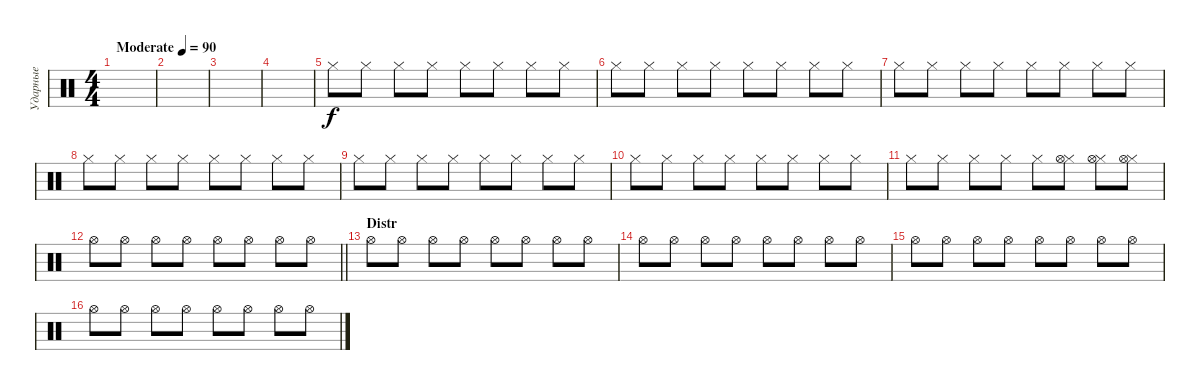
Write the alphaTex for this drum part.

\track ("Ударные" "Ударные") {instrument percussion}
\staff {score}
\articulation defaults
\ts (4 4)
\tempo (90 "Moderate")
\clef neutral
\ks c
|
|
|
|
"Hi-Hat (closed)".8 "Hi-Hat (closed)".8 "Hi-Hat (closed)".8 "Hi-Hat (closed)".8 "Hi-Hat (closed)".8 "Hi-Hat (closed)".8 "Hi-Hat (closed)".8 "Hi-Hat (closed)".8 |
"Hi-Hat (closed)".8 "Hi-Hat (closed)".8 "Hi-Hat (closed)".8 "Hi-Hat (closed)".8 "Hi-Hat (closed)".8 "Hi-Hat (closed)".8 "Hi-Hat (closed)".8 "Hi-Hat (closed)".8 |
"Hi-Hat (closed)".8 "Hi-Hat (closed)".8 "Hi-Hat (closed)".8 "Hi-Hat (closed)".8 "Hi-Hat (closed)".8 "Hi-Hat (closed)".8 "Hi-Hat (closed)".8 "Hi-Hat (closed)".8 |
"Hi-Hat (closed)".8 "Hi-Hat (closed)".8 "Hi-Hat (closed)".8 "Hi-Hat (closed)".8 "Hi-Hat (closed)".8 "Hi-Hat (closed)".8 "Hi-Hat (closed)".8 "Hi-Hat (closed)".8 |
"Hi-Hat (closed)".8 "Hi-Hat (closed)".8 "Hi-Hat (closed)".8 "Hi-Hat (closed)".8 "Hi-Hat (closed)".8 "Hi-Hat (closed)".8 "Hi-Hat (closed)".8 "Hi-Hat (closed)".8 |
"Hi-Hat (closed)".8 "Hi-Hat (closed)".8 "Hi-Hat (closed)".8 "Hi-Hat (closed)".8 "Hi-Hat (closed)".8 "Hi-Hat (closed)".8 "Hi-Hat (closed)".8 "Hi-Hat (closed)".8 |
"Hi-Hat (closed)".8 "Hi-Hat (closed)".8 "Hi-Hat (closed)".8 "Hi-Hat (closed)".8 "Hi-Hat (closed)".8 ("Hi-Hat (closed)" "Hi-Hat (open)").8 ("Hi-Hat (closed)" "Hi-Hat (open)").8 ("Hi-Hat (closed)" "Hi-Hat (open)").8 |
\barLineRight lightlight "Hi-Hat (open)".8 "Hi-Hat (open)".8 "Hi-Hat (open)".8 "Hi-Hat (open)".8 "Hi-Hat (open)".8 "Hi-Hat (open)".8 "Hi-Hat (open)".8 "Hi-Hat (open)".8
|
\section ("" "Distr")
"Hi-Hat (open)".8 "Hi-Hat (open)".8 "Hi-Hat (open)".8 "Hi-Hat (open)".8 "Hi-Hat (open)".8 "Hi-Hat (open)".8 "Hi-Hat (open)".8 "Hi-Hat (open)".8 |
"Hi-Hat (open)".8 "Hi-Hat (open)".8 "Hi-Hat (open)".8 "Hi-Hat (open)".8 "Hi-Hat (open)".8 "Hi-Hat (open)".8 "Hi-Hat (open)".8 "Hi-Hat (open)".8 |
"Hi-Hat (open)".8 "Hi-Hat (open)".8 "Hi-Hat (open)".8 "Hi-Hat (open)".8 "Hi-Hat (open)".8 "Hi-Hat (open)".8 "Hi-Hat (open)".8 "Hi-Hat (open)".8 |
"Hi-Hat (open)".8 "Hi-Hat (open)".8 "Hi-Hat (open)".8 "Hi-Hat (open)".8 "Hi-Hat (open)".8 "Hi-Hat (open)".8 "Hi-Hat (open)".8 "Hi-Hat (open)".8
